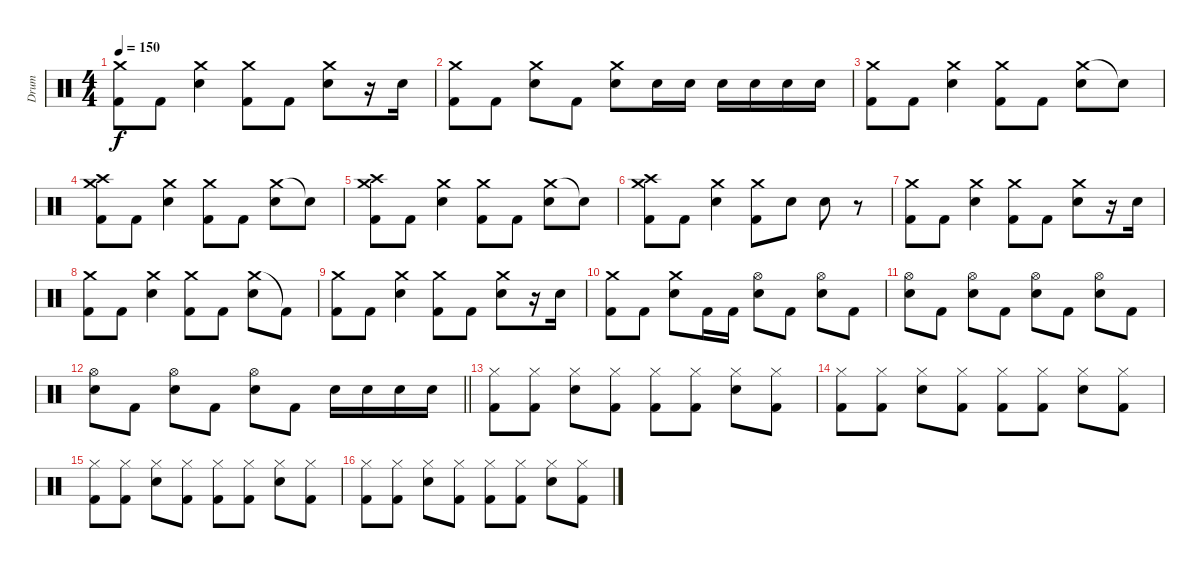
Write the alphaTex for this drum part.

\track ("Drum" "Drum") {instrument percussion}
\staff {score}
\articulation defaults
\ts (4 4)
\tempo 150
\clef neutral
\ks c
("Crash medium (hit)" "Kick (hit) 2").8{dy f} "Kick (hit) 2".8 ("Crash medium (hit)" "Electric Snare (hit)").4 ("Crash medium (hit)" "Kick (hit) 2").8 "Kick (hit) 2".8 ("Crash medium (hit)" "Electric Snare (hit)").8 r.16 "Electric Snare (hit)".16 |
("Crash medium (hit)" "Kick (hit) 2").8 "Kick (hit) 2".8 ("Crash medium (hit)" "Electric Snare (hit)").8 "Kick (hit) 2".8 ("Crash medium (hit)" "Electric Snare (hit)").8 "Electric Snare (hit)".16 "Electric Snare (hit)".16 "Electric Snare (hit)".16 "Electric Snare (hit)".16 "Electric Snare (hit)".16 "Electric Snare (hit)".16 |
("Crash medium (hit)" "Kick (hit) 2").8 "Kick (hit) 2".8 ("Crash medium (hit)" "Electric Snare (hit)").4 ("Crash medium (hit)" "Kick (hit) 2").8 "Kick (hit) 2".8 ("Crash medium (hit)" "Electric Snare (hit)").8 "Snare (hit)"{t}.8 |
("Crash high (hit)" "Crash medium (hit)" "Kick (hit) 2").8 "Kick (hit) 2".8 ("Crash medium (hit)" "Electric Snare (hit)").4 ("Crash medium (hit)" "Kick (hit) 2").8 "Kick (hit) 2".8 ("Crash medium (hit)" "Electric Snare (hit)").8 "Snare (hit)"{t}.8 |
("Crash high (hit)" "Crash medium (hit)" "Kick (hit) 2").8 "Kick (hit) 2".8 ("Crash medium (hit)" "Electric Snare (hit)").4 ("Crash medium (hit)" "Kick (hit) 2").8 "Kick (hit) 2".8 ("Crash medium (hit)" "Electric Snare (hit)").8 "Snare (hit)"{t}.8 |
("Crash high (hit)" "Crash medium (hit)" "Kick (hit) 2").8 "Kick (hit) 2".8 ("Crash medium (hit)" "Electric Snare (hit)").4 ("Crash medium (hit)" "Kick (hit) 2").8 "Electric Snare (hit)".8 "Electric Snare (hit)".8 r.8 |
("Crash medium (hit)" "Kick (hit) 2").8 "Kick (hit) 2".8 ("Crash medium (hit)" "Electric Snare (hit)").4 ("Crash medium (hit)" "Kick (hit) 2").8 "Kick (hit) 2".8 ("Crash medium (hit)" "Electric Snare (hit)").8 r.16 "Electric Snare (hit)".16 |
("Crash medium (hit)" "Kick (hit) 2").8 "Kick (hit) 2".8 ("Crash medium (hit)" "Electric Snare (hit)").4 ("Crash medium (hit)" "Kick (hit) 2").8 "Kick (hit) 2".8 ("Crash medium (hit)" "Electric Snare (hit)").8 "Kick (hit) 2"{t}.8 |
("Crash medium (hit)" "Kick (hit) 2").8 "Kick (hit) 2".8 ("Crash medium (hit)" "Electric Snare (hit)").4 ("Crash medium (hit)" "Kick (hit) 2").8 "Kick (hit) 2".8 ("Crash medium (hit)" "Electric Snare (hit)").8 r.16 "Electric Snare (hit)".16 |
("Crash medium (hit)" "Kick (hit) 2").8 "Kick (hit) 2".8 ("Crash medium (hit)" "Electric Snare (hit)").8 "Kick (hit) 2".16 "Kick (hit) 2".16 ("Hi-Hat (open)" "Electric Snare (hit)").8 "Kick (hit) 2".8 ("Hi-Hat (open)" "Electric Snare (hit)").8 "Kick (hit) 2".8 |
("Hi-Hat (open)" "Electric Snare (hit)").8 "Kick (hit) 2".8 ("Hi-Hat (open)" "Electric Snare (hit)").8 "Kick (hit) 2".8 ("Hi-Hat (open)" "Electric Snare (hit)").8 "Kick (hit) 2".8 ("Hi-Hat (open)" "Electric Snare (hit)").8 "Kick (hit) 2".8 |
\barLineRight lightlight
("Hi-Hat (open)" "Electric Snare (hit)").8 "Kick (hit) 2".8 ("Hi-Hat (open)" "Electric Snare (hit)").8 "Kick (hit) 2".8 ("Hi-Hat (open)" "Electric Snare (hit)").8 "Kick (hit) 2".8 "Electric Snare (hit)".16 "Electric Snare (hit)".16 "Electric Snare (hit)".16 "Electric Snare (hit)".16 |
("Hi-Hat (closed)" "Kick (hit) 2").8 ("Hi-Hat (closed)" "Kick (hit) 2").8 ("Hi-Hat (closed)" "Electric Snare (hit)").8 ("Hi-Hat (closed)" "Kick (hit) 2").8 ("Hi-Hat (closed)" "Kick (hit) 2").8 ("Hi-Hat (closed)" "Kick (hit) 2").8 ("Hi-Hat (closed)" "Electric Snare (hit)").8 ("Hi-Hat (closed)" "Kick (hit) 2").8 |
("Hi-Hat (closed)" "Kick (hit) 2").8 ("Hi-Hat (closed)" "Kick (hit) 2").8 ("Hi-Hat (closed)" "Electric Snare (hit)").8 ("Hi-Hat (closed)" "Kick (hit) 2").8 ("Hi-Hat (closed)" "Kick (hit) 2").8 ("Hi-Hat (closed)" "Kick (hit) 2").8 ("Hi-Hat (closed)" "Electric Snare (hit)").8 ("Hi-Hat (closed)" "Kick (hit) 2").8 |
("Hi-Hat (closed)" "Kick (hit) 2").8 ("Hi-Hat (closed)" "Kick (hit) 2").8 ("Hi-Hat (closed)" "Electric Snare (hit)").8 ("Hi-Hat (closed)" "Kick (hit) 2").8 ("Hi-Hat (closed)" "Kick (hit) 2").8 ("Hi-Hat (closed)" "Kick (hit) 2").8 ("Hi-Hat (closed)" "Electric Snare (hit)").8 ("Hi-Hat (closed)" "Kick (hit) 2").8 |
("Hi-Hat (closed)" "Kick (hit) 2").8 ("Hi-Hat (closed)" "Kick (hit) 2").8 ("Hi-Hat (closed)" "Electric Snare (hit)").8 ("Hi-Hat (closed)" "Kick (hit) 2").8 ("Hi-Hat (closed)" "Kick (hit) 2").8 ("Hi-Hat (closed)" "Kick (hit) 2").8 ("Hi-Hat (closed)" "Electric Snare (hit)").8 ("Hi-Hat (closed)" "Kick (hit) 2").8
